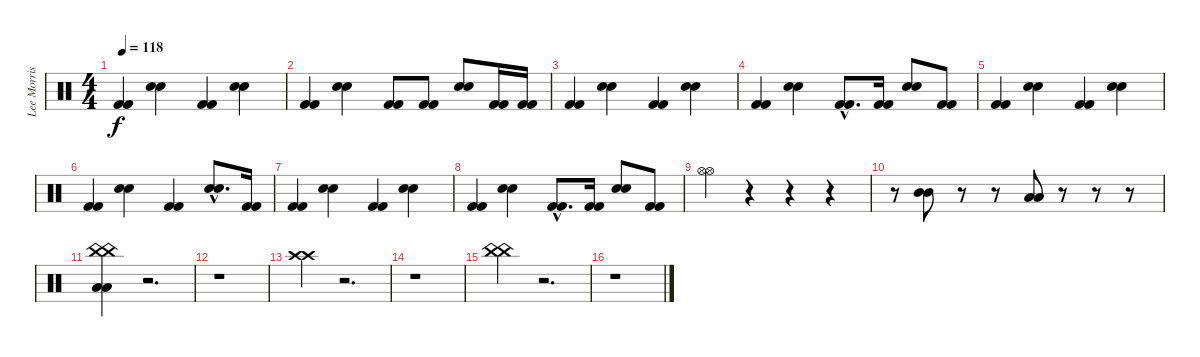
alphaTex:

\track ("Lee Morris" "Lee Morris") {instrument percussion}
\staff {score}
\articulation defaults
\ts (4 4)
\tempo 118
\clef neutral
\ks c
("Kick (hit) 2" "Kick (hit) 2").4{dy f} ("Snare (hit) 2" "Snare (hit) 2").4 ("Kick (hit) 2" "Kick (hit) 2").4 ("Snare (hit) 2" "Snare (hit) 2").4 |
("Kick (hit) 2" "Kick (hit) 2").4 ("Snare (hit) 2" "Snare (hit) 2").4 ("Kick (hit) 2" "Kick (hit) 2").8 ("Kick (hit) 2" "Kick (hit) 2").8 ("Snare (hit) 2" "Snare (hit) 2").8 ("Kick (hit) 2" "Kick (hit) 2").16 ("Kick (hit) 2" "Kick (hit) 2").16 |
("Kick (hit) 2" "Kick (hit) 2").4 ("Snare (hit) 2" "Snare (hit) 2").4 ("Kick (hit) 2" "Kick (hit) 2").4 ("Snare (hit) 2" "Snare (hit) 2").4 |
("Kick (hit) 2" "Kick (hit) 2").4 ("Snare (hit) 2" "Snare (hit) 2").4 ("Kick (hit) 2"{hac} "Kick (hit) 2"{hac}).8{d} ("Kick (hit) 2" "Kick (hit) 2").16 ("Snare (hit) 2" "Snare (hit) 2").8 ("Kick (hit) 2" "Kick (hit) 2").8 |
("Kick (hit) 2" "Kick (hit) 2").4 ("Snare (hit) 2" "Snare (hit) 2").4 ("Kick (hit) 2" "Kick (hit) 2").4 ("Snare (hit) 2" "Snare (hit) 2").4 |
("Kick (hit) 2" "Kick (hit) 2").4 ("Snare (hit) 2" "Snare (hit) 2").4 ("Kick (hit) 2" "Kick (hit) 2").4 ("Snare (hit) 2"{hac} "Snare (hit) 2"{hac}).8{d} ("Kick (hit) 2" "Kick (hit) 2").16 |
("Kick (hit) 2" "Kick (hit) 2").4 ("Snare (hit) 2" "Snare (hit) 2").4 ("Kick (hit) 2" "Kick (hit) 2").4 ("Snare (hit) 2" "Snare (hit) 2").4 |
("Kick (hit) 2" "Kick (hit) 2").4 ("Snare (hit) 2" "Snare (hit) 2").4 ("Kick (hit) 2"{hac} "Kick (hit) 2"{hac}).8{d} ("Kick (hit) 2" "Kick (hit) 2").16 ("Snare (hit) 2" "Snare (hit) 2").8 ("Kick (hit) 2" "Kick (hit) 2").8 |
("Hi-Hat (open)" "Hi-Hat (open)").4 r.4 r.4 r.4 |
r.8 ("Mid Tom (hit)" "Mid Tom (hit)").8 r.8 r.8 ("Low Tom (hit)" "Low Tom (hit)").8 r.8 r.8 r.8 |
("China (hit)" "China (hit)" "Low Tom (hit)" "Low Tom (hit)").4 r.2{d} |
r.1 |
("Crash high (hit)" "Crash high (hit)").4 r.2{d} |
r.1 |
("China (hit)" "China (hit)").4 r.2{d} |
r.1
